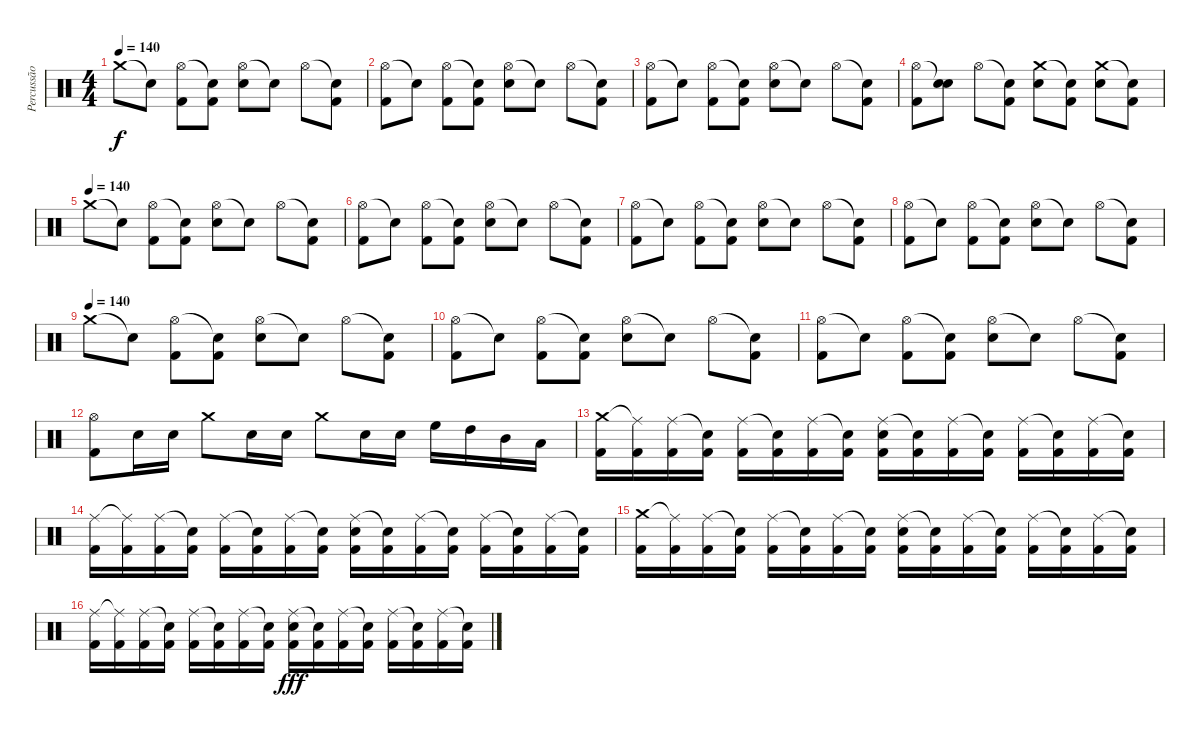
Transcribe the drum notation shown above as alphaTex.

\track ("Percussão" "Percussão") {instrument percussion}
\staff {score}
\articulation defaults
\ts (4 4)
\tempo 140
\clef neutral
\ks c "Crash medium (hit)".8{dy f} "Snare (hit)"{t}.8
("Hi-Hat (open)" "Kick (hit) 2").8 ("Snare (hit)"{t} "Kick (hit) 2").8 ("Hi-Hat (open)" "Electric Snare (hit)").8 "Snare (hit)"{t}.8 "Hi-Hat (open)".8 ("Snare (hit)"{t} "Kick (hit) 2").8 |
("Hi-Hat (open)" "Kick (hit) 2").8 "Snare (hit)"{t}.8 ("Hi-Hat (open)" "Kick (hit) 2").8 ("Snare (hit)"{t} "Kick (hit) 2").8 ("Hi-Hat (open)" "Electric Snare (hit)").8 "Snare (hit)"{t}.8 "Hi-Hat (open)".8 ("Snare (hit)"{t} "Kick (hit) 2").8 |
("Hi-Hat (open)" "Kick (hit) 2").8 "Snare (hit)"{t}.8 ("Hi-Hat (open)" "Kick (hit) 2").8 ("Snare (hit)"{t} "Kick (hit) 2").8 ("Hi-Hat (open)" "Electric Snare (hit)").8 "Snare (hit)"{t}.8 "Hi-Hat (open)".8 ("Snare (hit)"{t} "Kick (hit) 2").8 |
("Hi-Hat (open)" "Kick (hit) 2").8 ("Snare (hit)"{t} "Electric Snare (hit)").8 "Hi-Hat (open)".8 ("Snare (hit)"{t} "Kick (hit) 2").8 ("Crash medium (hit)" "Electric Snare (hit)").8 ("Snare (hit)"{t} "Kick (hit) 2").8 ("Crash medium (hit)" "Electric Snare (hit)").8 ("Snare (hit)"{t} "Kick (hit) 2").8 |
\tempo (140)
"Crash medium (hit)".8 "Snare (hit)"{t}.8 ("Hi-Hat (open)" "Kick (hit) 2").8 ("Snare (hit)"{t} "Kick (hit) 2").8 ("Hi-Hat (open)" "Electric Snare (hit)").8 "Snare (hit)"{t}.8 "Hi-Hat (open)".8 ("Snare (hit)"{t} "Kick (hit) 2").8 |
("Hi-Hat (open)" "Kick (hit) 2").8 "Snare (hit)"{t}.8 ("Hi-Hat (open)" "Kick (hit) 2").8 ("Snare (hit)"{t} "Kick (hit) 2").8 ("Hi-Hat (open)" "Electric Snare (hit)").8 "Snare (hit)"{t}.8 "Hi-Hat (open)".8 ("Snare (hit)"{t} "Kick (hit) 2").8 |
("Hi-Hat (open)" "Kick (hit) 2").8 "Snare (hit)"{t}.8 ("Hi-Hat (open)" "Kick (hit) 2").8 ("Snare (hit)"{t} "Kick (hit) 2").8 ("Hi-Hat (open)" "Electric Snare (hit)").8 "Snare (hit)"{t}.8 "Hi-Hat (open)".8 ("Snare (hit)"{t} "Kick (hit) 2").8 |
("Hi-Hat (open)" "Kick (hit) 2").8 "Snare (hit)"{t}.8 ("Hi-Hat (open)" "Kick (hit) 2").8 ("Snare (hit)"{t} "Kick (hit) 2").8 ("Hi-Hat (open)" "Electric Snare (hit)").8 "Snare (hit)"{t}.8 "Hi-Hat (open)".8 ("Snare (hit)"{t} "Kick (hit) 2").8 |
\tempo (140)
"Crash medium (hit)".8 "Snare (hit)"{t}.8 ("Hi-Hat (open)" "Kick (hit) 2").8 ("Snare (hit)"{t} "Kick (hit) 2").8 ("Hi-Hat (open)" "Electric Snare (hit)").8 "Snare (hit)"{t}.8 "Hi-Hat (open)".8 ("Snare (hit)"{t} "Kick (hit) 2").8 |
("Hi-Hat (open)" "Kick (hit) 2").8 "Snare (hit)"{t}.8 ("Hi-Hat (open)" "Kick (hit) 2").8 ("Snare (hit)"{t} "Kick (hit) 2").8 ("Hi-Hat (open)" "Electric Snare (hit)").8 "Snare (hit)"{t}.8 "Hi-Hat (open)".8 ("Snare (hit)"{t} "Kick (hit) 2").8 |
("Hi-Hat (open)" "Kick (hit) 2").8 "Snare (hit)"{t}.8 ("Hi-Hat (open)" "Kick (hit) 2").8 ("Snare (hit)"{t} "Kick (hit) 2").8 ("Hi-Hat (open)" "Electric Snare (hit)").8 "Snare (hit)"{t}.8 "Hi-Hat (open)".8 ("Snare (hit)"{t} "Kick (hit) 2").8 |
("Hi-Hat (open)" "Kick (hit) 2").8 "Electric Snare (hit)".16 "Electric Snare (hit)".16 "Crash medium (hit)".8 "Electric Snare (hit)".16 "Electric Snare (hit)".16 "Crash medium (hit)".8 "Electric Snare (hit)".16 "Electric Snare (hit)".16 "High Floor Tom (hit)".16 "High Tom (hit)".16 "Mid Tom (hit)".16 "Low Tom (hit)".16 |
("Crash medium (hit)" "Kick (hit) 2").16 ("Ride (middle)"{t} "Kick (hit) 2").16 ("Ride (middle)" "Kick (hit) 2").16 ("Snare (hit)"{t} "Kick (hit) 2").16 ("Ride (middle)" "Kick (hit) 2").16 ("Snare (hit)"{t} "Kick (hit) 2").16 ("Ride (middle)" "Kick (hit) 2").16 ("Snare (hit)"{t} "Kick (hit) 2").16 ("Ride (middle)" "Electric Snare (hit)" "Kick (hit) 2").16 ("Snare (hit)"{t} "Kick (hit) 2").16 ("Ride (middle)" "Kick (hit) 2").16 ("Snare (hit)"{t} "Kick (hit) 2").16 ("Ride (middle)" "Kick (hit) 2").16 ("Snare (hit)"{t} "Kick (hit) 2").16 ("Ride (middle)" "Kick (hit) 2").16 ("Snare (hit)"{t} "Kick (hit) 2").16 |
("Ride (middle)" "Kick (hit) 2").16 ("Ride (middle)"{t} "Kick (hit) 2").16 ("Ride (middle)" "Kick (hit) 2").16 ("Snare (hit)"{t} "Kick (hit) 2").16 ("Ride (middle)" "Kick (hit) 2").16 ("Snare (hit)"{t} "Kick (hit) 2").16 ("Ride (middle)" "Kick (hit) 2").16 ("Snare (hit)"{t} "Kick (hit) 2").16 ("Ride (middle)" "Electric Snare (hit)" "Kick (hit) 2").16 ("Snare (hit)"{t} "Kick (hit) 2").16 ("Ride (middle)" "Kick (hit) 2").16 ("Snare (hit)"{t} "Kick (hit) 2").16 ("Ride (middle)" "Kick (hit) 2").16 ("Snare (hit)"{t} "Kick (hit) 2").16 ("Ride (middle)" "Kick (hit) 2").16 ("Snare (hit)"{t} "Kick (hit) 2").16 |
("Crash medium (hit)" "Kick (hit) 2").16 ("Ride (middle)"{t} "Kick (hit) 2").16 ("Ride (middle)" "Kick (hit) 2").16 ("Snare (hit)"{t} "Kick (hit) 2").16 ("Ride (middle)" "Kick (hit) 2").16 ("Snare (hit)"{t} "Kick (hit) 2").16 ("Ride (middle)" "Kick (hit) 2").16 ("Snare (hit)"{t} "Kick (hit) 2").16 ("Ride (middle)" "Electric Snare (hit)" "Kick (hit) 2").16 ("Snare (hit)"{t} "Kick (hit) 2").16 ("Ride (middle)" "Kick (hit) 2").16 ("Snare (hit)"{t} "Kick (hit) 2").16 ("Ride (middle)" "Kick (hit) 2").16 ("Snare (hit)"{t} "Kick (hit) 2").16 ("Ride (middle)" "Kick (hit) 2").16 ("Snare (hit)"{t} "Kick (hit) 2").16 |
("Ride (middle)" "Kick (hit) 2").16 ("Ride (middle)"{t} "Kick (hit) 2").16 ("Ride (middle)" "Kick (hit) 2").16 ("Snare (hit)"{t} "Kick (hit) 2").16 ("Ride (middle)" "Kick (hit) 2").16 ("Snare (hit)"{t} "Kick (hit) 2").16 ("Ride (middle)" "Kick (hit) 2").16 ("Snare (hit)"{t} "Kick (hit) 2").16 ("Ride (middle)" "Electric Snare (hit)" "Kick (hit) 2").16{dy fff} ("Snare (hit)"{t} "Kick (hit) 2").16 ("Ride (middle)" "Kick (hit) 2").16 ("Snare (hit)"{t} "Kick (hit) 2").16 ("Ride (middle)" "Kick (hit) 2").16 ("Snare (hit)"{t} "Kick (hit) 2").16 ("Ride (middle)" "Kick (hit) 2").16 ("Snare (hit)"{t} "Kick (hit) 2").16
